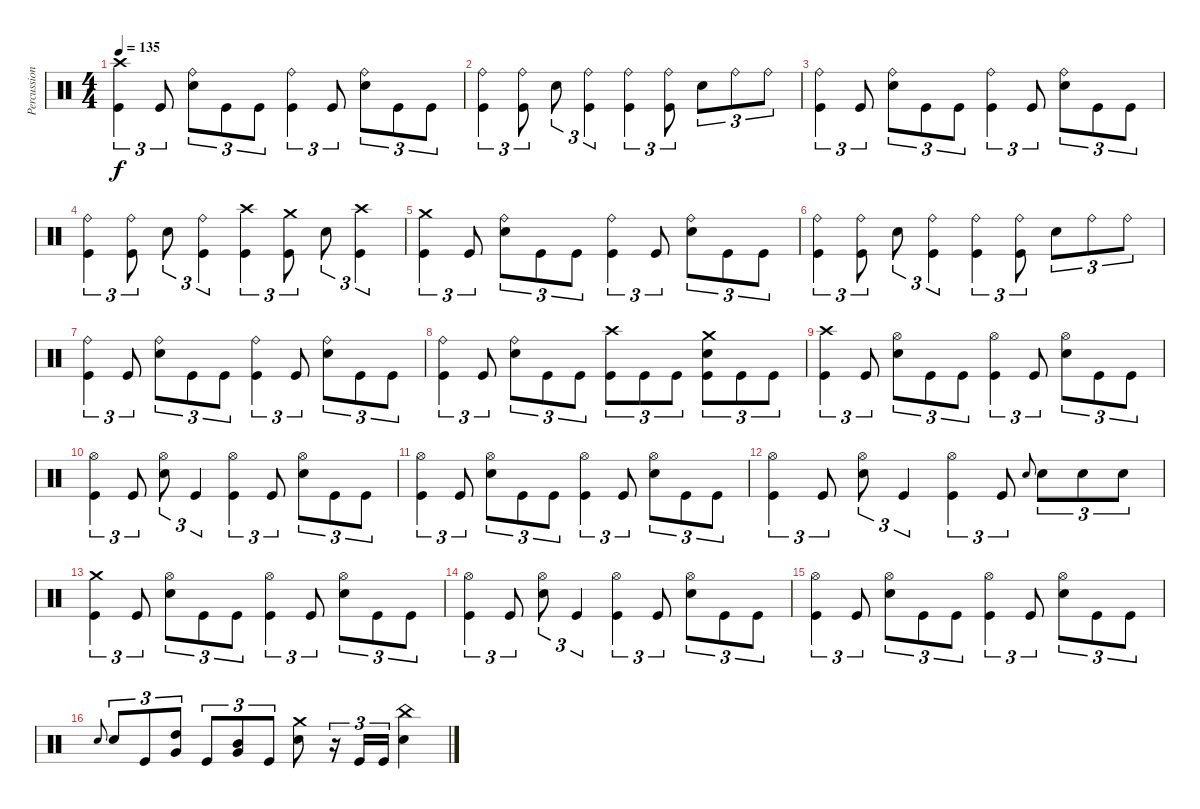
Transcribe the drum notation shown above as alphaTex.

\track ("Percussion" "Percussion") {instrument percussion}
\staff {score}
\articulation defaults
\ts (4 4)
\tempo 135
\clef neutral
\ks c
("Crash high (hit)" "Kick (hit)").4{tu (3 2) dy f} "Kick (hit)".8{tu (3 2)} ("Ride (bell)" "Snare (hit) 2").8{tu (3 2)} "Kick (hit)".8{tu (3 2)} "Kick (hit)".8{tu (3 2)} ("Ride (bell)" "Kick (hit)").4{tu (3 2)} "Kick (hit)".8{tu (3 2)} ("Ride (bell)" "Snare (hit) 2").8{tu (3 2)} "Kick (hit)".8{tu (3 2)} "Kick (hit)".8{tu (3 2)} |
("Ride (bell)" "Kick (hit)").4{tu (3 2)} ("Ride (bell)" "Kick (hit)").8{tu (3 2)} "Snare (hit) 2".8{tu (3 2)} ("Ride (bell)" "Kick (hit)").4{tu (3 2)} ("Ride (bell)" "Kick (hit)").4{tu (3 2)} ("Ride (bell)" "Kick (hit)").8{tu (3 2)} "Snare (hit) 2".8{tu (3 2)} "Ride (bell)".8{tu (3 2)} "Ride (bell)".8{tu (3 2)} |
("Ride (bell)" "Kick (hit)").4{tu (3 2)} "Kick (hit)".8{tu (3 2)} ("Ride (bell)" "Snare (hit) 2").8{tu (3 2)} "Kick (hit)".8{tu (3 2)} "Kick (hit)".8{tu (3 2)} ("Ride (bell)" "Kick (hit)").4{tu (3 2)} "Kick (hit)".8{tu (3 2)} ("Ride (bell)" "Snare (hit) 2").8{tu (3 2)} "Kick (hit)".8{tu (3 2)} "Kick (hit)".8{tu (3 2)} |
("Ride (bell)" "Kick (hit)").4{tu (3 2)} ("Ride (bell)" "Kick (hit)").8{tu (3 2)} "Snare (hit) 2".8{tu (3 2)} ("Ride (bell)" "Kick (hit)").4{tu (3 2)} ("Crash high (hit)" "Kick (hit)").4{tu (3 2)} ("Crash medium (hit)" "Kick (hit)").8{tu (3 2)} "Snare (hit) 2".8{tu (3 2)} ("Crash high (hit)" "Kick (hit)").4{tu (3 2)} |
("Crash medium (hit)" "Kick (hit)").4{tu (3 2)} "Kick (hit)".8{tu (3 2)} ("Ride (bell)" "Snare (hit) 2").8{tu (3 2)} "Kick (hit)".8{tu (3 2)} "Kick (hit)".8{tu (3 2)} ("Ride (bell)" "Kick (hit)").4{tu (3 2)} "Kick (hit)".8{tu (3 2)} ("Ride (bell)" "Snare (hit) 2").8{tu (3 2)} "Kick (hit)".8{tu (3 2)} "Kick (hit)".8{tu (3 2)} |
("Ride (bell)" "Kick (hit)").4{tu (3 2)} ("Ride (bell)" "Kick (hit)").8{tu (3 2)} "Snare (hit) 2".8{tu (3 2)} ("Ride (bell)" "Kick (hit)").4{tu (3 2)} ("Ride (bell)" "Kick (hit)").4{tu (3 2)} ("Ride (bell)" "Kick (hit)").8{tu (3 2)} "Snare (hit) 2".8{tu (3 2)} "Ride (bell)".8{tu (3 2)} "Ride (bell)".8{tu (3 2)} |
("Ride (bell)" "Kick (hit)").4{tu (3 2)} "Kick (hit)".8{tu (3 2)} ("Ride (bell)" "Snare (hit) 2").8{tu (3 2)} "Kick (hit)".8{tu (3 2)} "Kick (hit)".8{tu (3 2)} ("Ride (bell)" "Kick (hit)").4{tu (3 2)} "Kick (hit)".8{tu (3 2)} ("Ride (bell)" "Snare (hit) 2").8{tu (3 2)} "Kick (hit)".8{tu (3 2)} "Kick (hit)".8{tu (3 2)} |
("Ride (bell)" "Kick (hit)").4{tu (3 2)} "Kick (hit)".8{tu (3 2)} ("Ride (bell)" "Snare (hit) 2").8{tu (3 2)} "Kick (hit)".8{tu (3 2)} "Kick (hit)".8{tu (3 2)} ("Crash high (hit)" "Kick (hit)").8{tu (3 2)} "Kick (hit)".8{tu (3 2)} "Kick (hit)".8{tu (3 2)} ("Crash medium (hit)" "Snare (hit) 2" "Kick (hit)").8{tu (3 2)} "Kick (hit)".8{tu (3 2)} "Kick (hit)".8{tu (3 2)} |
("Crash high (hit)" "Kick (hit)").4{tu (3 2)} "Kick (hit)".8{tu (3 2)} ("Hi-Hat (open)" "Snare (hit) 2").8{tu (3 2)} "Kick (hit)".8{tu (3 2)} "Kick (hit)".8{tu (3 2)} ("Hi-Hat (open)" "Kick (hit)").4{tu (3 2)} "Kick (hit)".8{tu (3 2)} ("Hi-Hat (open)" "Snare (hit) 2").8{tu (3 2)} "Kick (hit)".8{tu (3 2)} "Kick (hit)".8{tu (3 2)} |
("Hi-Hat (open)" "Kick (hit)").4{tu (3 2)} "Kick (hit)".8{tu (3 2)} ("Hi-Hat (open)" "Snare (hit) 2").8{tu (3 2)} "Kick (hit)".4{tu (3 2)} ("Hi-Hat (open)" "Kick (hit)").4{tu (3 2)} "Kick (hit)".8{tu (3 2)} ("Hi-Hat (open)" "Snare (hit) 2").8{tu (3 2)} "Kick (hit)".8{tu (3 2)} "Kick (hit)".8{tu (3 2)} |
("Hi-Hat (open)" "Kick (hit)").4{tu (3 2)} "Kick (hit)".8{tu (3 2)} ("Hi-Hat (open)" "Snare (hit) 2").8{tu (3 2)} "Kick (hit)".8{tu (3 2)} "Kick (hit)".8{tu (3 2)} ("Hi-Hat (open)" "Kick (hit)").4{tu (3 2)} "Kick (hit)".8{tu (3 2)} ("Hi-Hat (open)" "Snare (hit) 2").8{tu (3 2)} "Kick (hit)".8{tu (3 2)} "Kick (hit)".8{tu (3 2)} |
("Hi-Hat (open)" "Kick (hit)").4{tu (3 2)} "Kick (hit)".8{tu (3 2)} ("Hi-Hat (open)" "Snare (hit) 2").8{tu (3 2)} "Kick (hit)".4{tu (3 2)} ("Hi-Hat (open)" "Kick (hit)").4{tu (3 2)} "Kick (hit)".8{tu (3 2)} "Snare (hit) 2".8{gr onbeat} "Snare (hit) 2".8{tu (3 2)} "Snare (hit) 2".8{tu (3 2)} "Snare (hit) 2".8{tu (3 2)} |
("Crash medium (hit)" "Kick (hit)").4{tu (3 2)} "Kick (hit)".8{tu (3 2)} ("Hi-Hat (open)" "Snare (hit) 2").8{tu (3 2)} "Kick (hit)".8{tu (3 2)} "Kick (hit)".8{tu (3 2)} ("Hi-Hat (open)" "Kick (hit)").4{tu (3 2)} "Kick (hit)".8{tu (3 2)} ("Hi-Hat (open)" "Snare (hit) 2").8{tu (3 2)} "Kick (hit)".8{tu (3 2)} "Kick (hit)".8{tu (3 2)} |
("Hi-Hat (open)" "Kick (hit)").4{tu (3 2)} "Kick (hit)".8{tu (3 2)} ("Hi-Hat (open)" "Snare (hit) 2").8{tu (3 2)} "Kick (hit)".4{tu (3 2)} ("Hi-Hat (open)" "Kick (hit)").4{tu (3 2)} "Kick (hit)".8{tu (3 2)} ("Hi-Hat (open)" "Snare (hit) 2").8{tu (3 2)} "Kick (hit)".8{tu (3 2)} "Kick (hit)".8{tu (3 2)} |
("Hi-Hat (open)" "Kick (hit)").4{tu (3 2)} "Kick (hit)".8{tu (3 2)} ("Hi-Hat (open)" "Snare (hit) 2").8{tu (3 2)} "Kick (hit)".8{tu (3 2)} "Kick (hit)".8{tu (3 2)} ("Hi-Hat (open)" "Kick (hit)").4{tu (3 2)} "Kick (hit)".8{tu (3 2)} ("Hi-Hat (open)" "Snare (hit) 2").8{tu (3 2)} "Kick (hit)".8{tu (3 2)} "Kick (hit)".8{tu (3 2)} |
"Snare (hit) 2".8{gr onbeat} "Snare (hit) 2".8{tu (3 2)} "Kick (hit)".8{tu (3 2)} ("High Tom (hit)" "Very Low Tom (hit)").8{tu (3 2) bu 120} "Kick (hit)".8{tu (3 2)} ("Mid Tom (hit)" "Very Low Tom (hit)").8{tu (3 2) bu 120} "Kick (hit)".8{tu (3 2)} ("Crash medium (hit)" "Snare (hit) 2").8 r.16{tu (3 2)} "Kick (hit)".16{tu (3 2)} "Kick (hit)".16{tu (3 2)} ("China (hit)" "Snare (hit) 2").4
